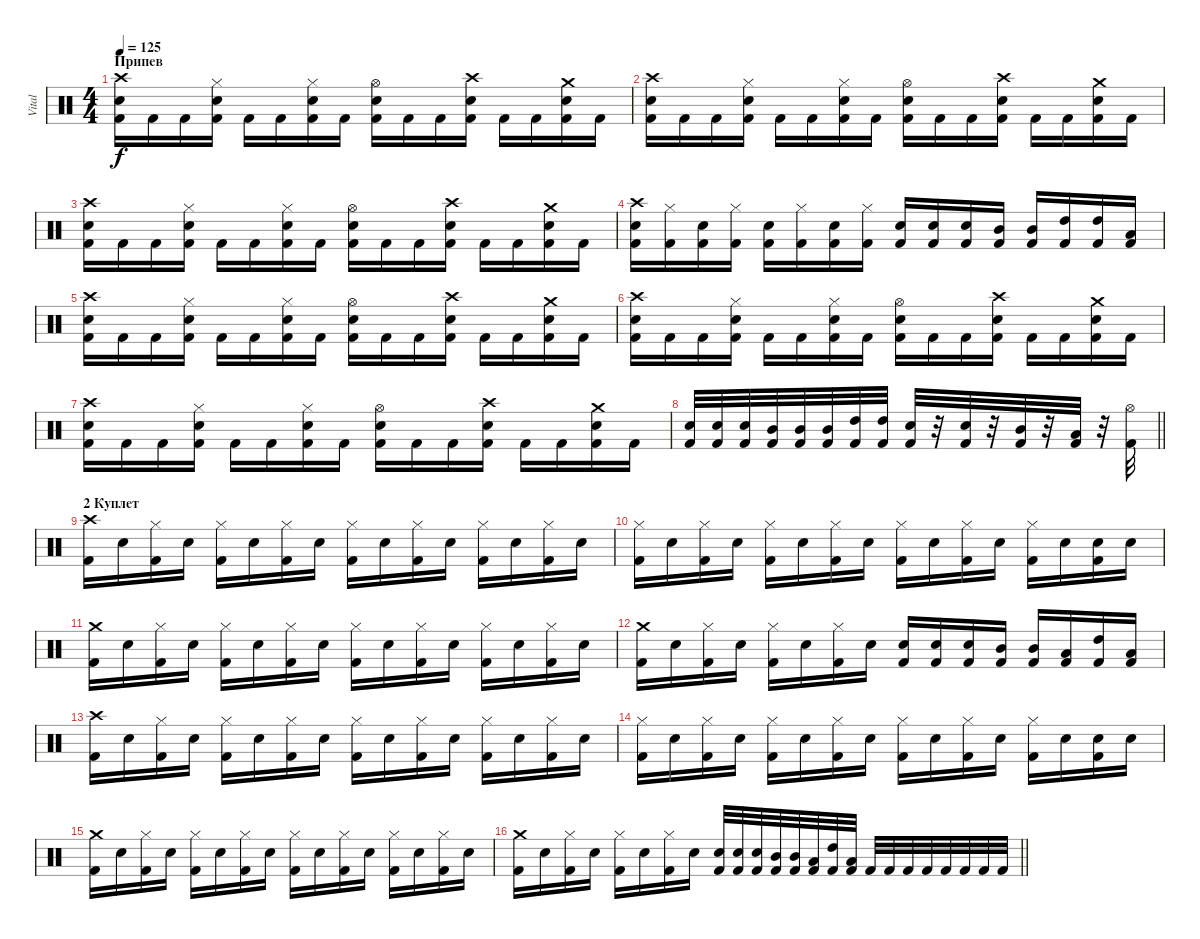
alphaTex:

\track ("Vital" "Vital") {instrument percussion}
\staff {score}
\articulation defaults
\ts (4 4)
\section ("" "Припев")
\tempo 125
\clef neutral
\ks c
("Crash high (hit)" "Snare (hit) 2" "Kick (hit) 2").16{dy f} "Kick (hit) 2".16 "Kick (hit) 2".16 ("Hi-Hat (closed)" "Snare (hit) 2" "Kick (hit) 2").16 "Kick (hit) 2".16 "Kick (hit) 2".16 ("Hi-Hat (closed)" "Snare (hit) 2" "Kick (hit) 2").16 "Kick (hit) 2".16 ("Hi-Hat (open)" "Snare (hit) 2" "Kick (hit) 2").16 "Kick (hit) 2".16 "Kick (hit) 2".16 ("Crash high (hit)" "Snare (hit) 2" "Kick (hit) 2").16 "Kick (hit) 2".16 "Kick (hit) 2".16 ("Crash medium (hit)" "Snare (hit) 2" "Kick (hit) 2").16 "Kick (hit) 2".16 |
("Crash high (hit)" "Snare (hit) 2" "Kick (hit) 2").16 "Kick (hit) 2".16 "Kick (hit) 2".16 ("Hi-Hat (closed)" "Snare (hit) 2" "Kick (hit) 2").16 "Kick (hit) 2".16 "Kick (hit) 2".16 ("Hi-Hat (closed)" "Snare (hit) 2" "Kick (hit) 2").16 "Kick (hit) 2".16 ("Hi-Hat (open)" "Snare (hit) 2" "Kick (hit) 2").16 "Kick (hit) 2".16 "Kick (hit) 2".16 ("Crash high (hit)" "Snare (hit) 2" "Kick (hit) 2").16 "Kick (hit) 2".16 "Kick (hit) 2".16 ("Crash medium (hit)" "Snare (hit) 2" "Kick (hit) 2").16 "Kick (hit) 2".16 |
("Crash high (hit)" "Snare (hit) 2" "Kick (hit) 2").16 "Kick (hit) 2".16 "Kick (hit) 2".16 ("Hi-Hat (closed)" "Snare (hit) 2" "Kick (hit) 2").16 "Kick (hit) 2".16 "Kick (hit) 2".16 ("Hi-Hat (closed)" "Snare (hit) 2" "Kick (hit) 2").16 "Kick (hit) 2".16 ("Hi-Hat (open)" "Snare (hit) 2" "Kick (hit) 2").16 "Kick (hit) 2".16 "Kick (hit) 2".16 ("Crash high (hit)" "Snare (hit) 2" "Kick (hit) 2").16 "Kick (hit) 2".16 "Kick (hit) 2".16 ("Crash medium (hit)" "Snare (hit) 2" "Kick (hit) 2").16 "Kick (hit) 2".16 |
("Crash high (hit)" "Snare (hit) 2" "Kick (hit) 2").16 ("Hi-Hat (closed)" "Kick (hit) 2").16 ("Snare (hit) 2" "Kick (hit) 2").16 ("Hi-Hat (closed)" "Kick (hit) 2").16 ("Snare (hit) 2" "Kick (hit) 2").16 ("Hi-Hat (closed)" "Kick (hit) 2").16 ("Snare (hit) 2" "Kick (hit) 2").16 ("Hi-Hat (closed)" "Kick (hit) 2").16 ("Snare (hit) 2" "Kick (hit) 2").16 ("Snare (hit) 2" "Kick (hit) 2").16 ("Snare (hit) 2" "Kick (hit) 2").16 ("Mid Tom (hit)" "Kick (hit) 2").16 ("Mid Tom (hit)" "Kick (hit) 2").16 ("High Tom (hit)" "Kick (hit) 2").16 ("High Tom (hit)" "Kick (hit) 2").16 ("Low Tom (hit)" "Kick (hit) 2").16 |
("Crash high (hit)" "Snare (hit) 2" "Kick (hit) 2").16 "Kick (hit) 2".16 "Kick (hit) 2".16 ("Hi-Hat (closed)" "Snare (hit) 2" "Kick (hit) 2").16 "Kick (hit) 2".16 "Kick (hit) 2".16 ("Hi-Hat (closed)" "Snare (hit) 2" "Kick (hit) 2").16 "Kick (hit) 2".16 ("Hi-Hat (open)" "Snare (hit) 2" "Kick (hit) 2").16 "Kick (hit) 2".16 "Kick (hit) 2".16 ("Crash high (hit)" "Snare (hit) 2" "Kick (hit) 2").16 "Kick (hit) 2".16 "Kick (hit) 2".16 ("Crash medium (hit)" "Snare (hit) 2" "Kick (hit) 2").16 "Kick (hit) 2".16 |
("Crash high (hit)" "Snare (hit) 2" "Kick (hit) 2").16 "Kick (hit) 2".16 "Kick (hit) 2".16 ("Hi-Hat (closed)" "Snare (hit) 2" "Kick (hit) 2").16 "Kick (hit) 2".16 "Kick (hit) 2".16 ("Hi-Hat (closed)" "Snare (hit) 2" "Kick (hit) 2").16 "Kick (hit) 2".16 ("Hi-Hat (open)" "Snare (hit) 2" "Kick (hit) 2").16 "Kick (hit) 2".16 "Kick (hit) 2".16 ("Crash high (hit)" "Snare (hit) 2" "Kick (hit) 2").16 "Kick (hit) 2".16 "Kick (hit) 2".16 ("Crash medium (hit)" "Snare (hit) 2" "Kick (hit) 2").16 "Kick (hit) 2".16 |
("Crash high (hit)" "Snare (hit) 2" "Kick (hit) 2").16 "Kick (hit) 2".16 "Kick (hit) 2".16 ("Hi-Hat (closed)" "Snare (hit) 2" "Kick (hit) 2").16 "Kick (hit) 2".16 "Kick (hit) 2".16 ("Hi-Hat (closed)" "Snare (hit) 2" "Kick (hit) 2").16 "Kick (hit) 2".16 ("Hi-Hat (open)" "Snare (hit) 2" "Kick (hit) 2").16 "Kick (hit) 2".16 "Kick (hit) 2".16 ("Crash high (hit)" "Snare (hit) 2" "Kick (hit) 2").16 "Kick (hit) 2".16 "Kick (hit) 2".16 ("Crash medium (hit)" "Snare (hit) 2" "Kick (hit) 2").16 "Kick (hit) 2".16 |
\barLineRight lightlight
("Snare (hit) 2" "Kick (hit) 2").32 ("Snare (hit) 2" "Kick (hit) 2").32 ("Snare (hit) 2" "Kick (hit) 2").32 ("Mid Tom (hit)" "Kick (hit) 2").32 ("Mid Tom (hit)" "Kick (hit) 2").32 ("Mid Tom (hit)" "Kick (hit) 2").32 ("High Tom (hit)" "Kick (hit) 2").32 ("High Tom (hit)" "Kick (hit) 2").32 ("Snare (hit) 2" "Kick (hit) 2").32 r.32 ("Snare (hit) 2" "Kick (hit) 2").32 r.32 ("Mid Tom (hit)" "Kick (hit) 2").32 r.32 ("Low Tom (hit)" "Kick (hit) 2").32 r.32 ("Hi-Hat (open)" "Kick (hit) 2").32 |
\section ("" "2 Куплет ")
("Crash high (hit)" "Kick (hit) 2").16 "Snare (hit) 2".16 ("Hi-Hat (closed)" "Kick (hit) 2").16 "Snare (hit) 2".16 ("Hi-Hat (closed)" "Kick (hit) 2").16 "Snare (hit) 2".16 ("Hi-Hat (closed)" "Kick (hit) 2").16 "Snare (hit) 2".16 ("Hi-Hat (closed)" "Kick (hit) 2").16 "Snare (hit) 2".16 ("Hi-Hat (closed)" "Kick (hit) 2").16 "Snare (hit) 2".16 ("Hi-Hat (closed)" "Kick (hit) 2").16 "Snare (hit) 2".16 ("Hi-Hat (closed)" "Kick (hit) 2").16 "Snare (hit) 2".16 |
("Hi-Hat (closed)" "Kick (hit) 2").16 "Snare (hit) 2".16 ("Hi-Hat (closed)" "Kick (hit) 2").16 "Snare (hit) 2".16 ("Hi-Hat (closed)" "Kick (hit) 2").16 "Snare (hit) 2".16 ("Hi-Hat (closed)" "Kick (hit) 2").16 "Snare (hit) 2".16 ("Hi-Hat (closed)" "Kick (hit) 2").16 "Snare (hit) 2".16 ("Hi-Hat (closed)" "Kick (hit) 2").16 "Snare (hit) 2".16 ("Hi-Hat (closed)" "Kick (hit) 2").16 "Snare (hit) 2".16 ("Snare (hit) 2" "Kick (hit) 2").16 "Snare (hit) 2".16 |
("Crash medium (hit)" "Kick (hit) 2").16 "Snare (hit) 2".16 ("Hi-Hat (closed)" "Kick (hit) 2").16 "Snare (hit) 2".16 ("Hi-Hat (closed)" "Kick (hit) 2").16 "Snare (hit) 2".16 ("Hi-Hat (closed)" "Kick (hit) 2").16 "Snare (hit) 2".16 ("Hi-Hat (closed)" "Kick (hit) 2").16 "Snare (hit) 2".16 ("Hi-Hat (closed)" "Kick (hit) 2").16 "Snare (hit) 2".16 ("Hi-Hat (closed)" "Kick (hit) 2").16 "Snare (hit) 2".16 ("Hi-Hat (closed)" "Kick (hit) 2").16 "Snare (hit) 2".16 |
("Crash medium (hit)" "Kick (hit) 2").16 "Snare (hit) 2".16 ("Hi-Hat (closed)" "Kick (hit) 2").16 "Snare (hit) 2".16 ("Hi-Hat (closed)" "Kick (hit) 2").16 "Snare (hit) 2".16 ("Hi-Hat (closed)" "Kick (hit) 2").16 "Snare (hit) 2".16 ("Snare (hit) 2" "Kick (hit) 2").16 ("Snare (hit) 2" "Kick (hit) 2").16 ("Snare (hit) 2" "Kick (hit) 2").16 ("Mid Tom (hit)" "Kick (hit) 2").16 ("Mid Tom (hit)" "Kick (hit) 2").16 ("Low Tom (hit)" "Kick (hit) 2").16 ("High Tom (hit)" "Kick (hit) 2").16 ("Low Tom (hit)" "Kick (hit) 2").16 |
("Crash high (hit)" "Kick (hit) 2").16 "Snare (hit) 2".16 ("Hi-Hat (closed)" "Kick (hit) 2").16 "Snare (hit) 2".16 ("Hi-Hat (closed)" "Kick (hit) 2").16 "Snare (hit) 2".16 ("Hi-Hat (closed)" "Kick (hit) 2").16 "Snare (hit) 2".16 ("Hi-Hat (closed)" "Kick (hit) 2").16 "Snare (hit) 2".16 ("Hi-Hat (closed)" "Kick (hit) 2").16 "Snare (hit) 2".16 ("Hi-Hat (closed)" "Kick (hit) 2").16 "Snare (hit) 2".16 ("Hi-Hat (closed)" "Kick (hit) 2").16 "Snare (hit) 2".16 |
("Hi-Hat (closed)" "Kick (hit) 2").16 "Snare (hit) 2".16 ("Hi-Hat (closed)" "Kick (hit) 2").16 "Snare (hit) 2".16 ("Hi-Hat (closed)" "Kick (hit) 2").16 "Snare (hit) 2".16 ("Hi-Hat (closed)" "Kick (hit) 2").16 "Snare (hit) 2".16 ("Hi-Hat (closed)" "Kick (hit) 2").16 "Snare (hit) 2".16 ("Hi-Hat (closed)" "Kick (hit) 2").16 "Snare (hit) 2".16 ("Hi-Hat (closed)" "Kick (hit) 2").16 "Snare (hit) 2".16 ("Snare (hit) 2" "Kick (hit) 2").16 "Snare (hit) 2".16 |
("Crash medium (hit)" "Kick (hit) 2").16 "Snare (hit) 2".16 ("Hi-Hat (closed)" "Kick (hit) 2").16 "Snare (hit) 2".16 ("Hi-Hat (closed)" "Kick (hit) 2").16 "Snare (hit) 2".16 ("Hi-Hat (closed)" "Kick (hit) 2").16 "Snare (hit) 2".16 ("Hi-Hat (closed)" "Kick (hit) 2").16 "Snare (hit) 2".16 ("Hi-Hat (closed)" "Kick (hit) 2").16 "Snare (hit) 2".16 ("Hi-Hat (closed)" "Kick (hit) 2").16 "Snare (hit) 2".16 ("Hi-Hat (closed)" "Kick (hit) 2").16 "Snare (hit) 2".16 |
\barLineRight lightlight
("Crash medium (hit)" "Kick (hit) 2").16 "Snare (hit) 2".16 ("Hi-Hat (closed)" "Kick (hit) 2").16 "Snare (hit) 2".16 ("Hi-Hat (closed)" "Kick (hit) 2").16 "Snare (hit) 2".16 ("Hi-Hat (closed)" "Kick (hit) 2").16 "Snare (hit) 2".16 ("Snare (hit) 2" "Kick (hit) 2").32 ("Snare (hit) 2" "Kick (hit) 2").32 ("Snare (hit) 2" "Kick (hit) 2").32 ("Mid Tom (hit)" "Kick (hit) 2").32 ("Mid Tom (hit)" "Kick (hit) 2").32 ("Low Tom (hit)" "Kick (hit) 2").32 ("High Tom (hit)" "Kick (hit) 2").32 ("Low Tom (hit)" "Kick (hit) 2").32 "Kick (hit) 2".32 "Kick (hit) 2".32 "Kick (hit) 2".32 "Kick (hit) 2".32 "Kick (hit) 2".32 "Kick (hit) 2".32 "Kick (hit) 2".32 "Kick (hit) 2".32
